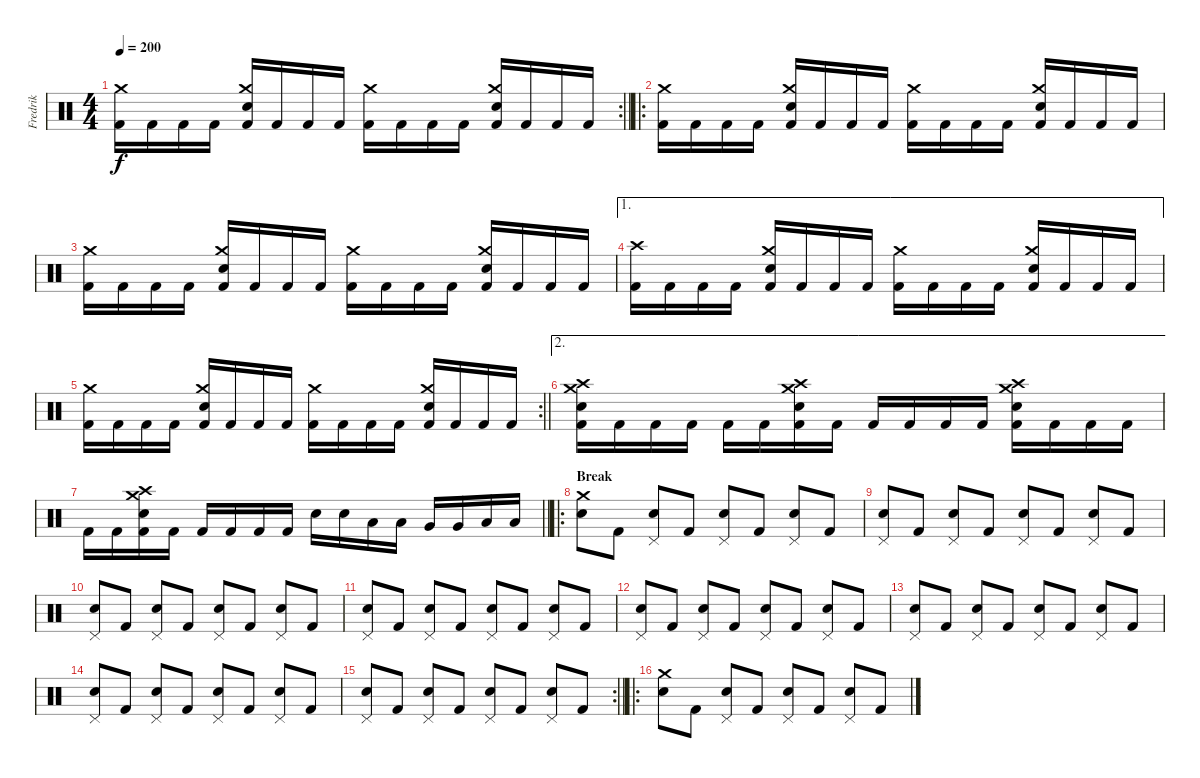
\track ("Fredrik" "Fredrik") {instrument percussion}
\staff {score}
\articulation defaults
\rc 2
\ts (4 4)
\tempo 200
\clef neutral
\barLineRight lightlight
\ks c
("Kick (hit) 2" "Crash medium (hit)").16{dy f} "Kick (hit) 2".16 "Kick (hit) 2".16 "Kick (hit) 2".16 ("Kick (hit) 2" "Snare (hit) 2" "Crash medium (hit)").16 "Kick (hit) 2".16 "Kick (hit) 2".16 "Kick (hit) 2".16 ("Kick (hit) 2" "Crash medium (hit)").16 "Kick (hit) 2".16 "Kick (hit) 2".16 "Kick (hit) 2".16 ("Kick (hit) 2" "Snare (hit) 2" "Crash medium (hit)").16 "Kick (hit) 2".16 "Kick (hit) 2".16 "Kick (hit) 2".16 |
\ro
("Kick (hit) 2" "Crash medium (hit)").16 "Kick (hit) 2".16 "Kick (hit) 2".16 "Kick (hit) 2".16 ("Kick (hit) 2" "Snare (hit) 2" "Crash medium (hit)").16 "Kick (hit) 2".16 "Kick (hit) 2".16 "Kick (hit) 2".16 ("Kick (hit) 2" "Crash medium (hit)").16 "Kick (hit) 2".16 "Kick (hit) 2".16 "Kick (hit) 2".16 ("Kick (hit) 2" "Snare (hit) 2" "Crash medium (hit)").16 "Kick (hit) 2".16 "Kick (hit) 2".16 "Kick (hit) 2".16 |
("Kick (hit) 2" "Crash medium (hit)").16 "Kick (hit) 2".16 "Kick (hit) 2".16 "Kick (hit) 2".16 ("Kick (hit) 2" "Snare (hit) 2" "Crash medium (hit)").16 "Kick (hit) 2".16 "Kick (hit) 2".16 "Kick (hit) 2".16 ("Kick (hit) 2" "Crash medium (hit)").16 "Kick (hit) 2".16 "Kick (hit) 2".16 "Kick (hit) 2".16 ("Kick (hit) 2" "Snare (hit) 2" "Crash medium (hit)").16 "Kick (hit) 2".16 "Kick (hit) 2".16 "Kick (hit) 2".16 |
\ae 1
("Kick (hit) 2" "Crash high (hit)").16 "Kick (hit) 2".16 "Kick (hit) 2".16 "Kick (hit) 2".16 ("Kick (hit) 2" "Snare (hit) 2" "Crash medium (hit)").16 "Kick (hit) 2".16 "Kick (hit) 2".16 "Kick (hit) 2".16 ("Kick (hit) 2" "Crash medium (hit)").16 "Kick (hit) 2".16 "Kick (hit) 2".16 "Kick (hit) 2".16 ("Kick (hit) 2" "Snare (hit) 2" "Crash medium (hit)").16 "Kick (hit) 2".16 "Kick (hit) 2".16 "Kick (hit) 2".16 |
\rc 2
\barLineRight lightlight
("Kick (hit) 2" "Crash medium (hit)").16 "Kick (hit) 2".16 "Kick (hit) 2".16 "Kick (hit) 2".16 ("Kick (hit) 2" "Snare (hit) 2" "Crash medium (hit)").16 "Kick (hit) 2".16 "Kick (hit) 2".16 "Kick (hit) 2".16 ("Kick (hit) 2" "Crash medium (hit)").16 "Kick (hit) 2".16 "Kick (hit) 2".16 "Kick (hit) 2".16 ("Kick (hit) 2" "Snare (hit) 2" "Crash medium (hit)").16 "Kick (hit) 2".16 "Kick (hit) 2".16 "Kick (hit) 2".16 |
\ae 2
("Kick (hit) 2" "Snare (hit) 2" "Crash medium (hit)" "Crash high (hit)").16 "Kick (hit) 2".16 "Kick (hit) 2".16 "Kick (hit) 2".16 "Kick (hit) 2".16 "Kick (hit) 2".16 ("Kick (hit) 2" "Snare (hit) 2" "Crash medium (hit)" "Crash high (hit)").16 "Kick (hit) 2".16 "Kick (hit) 2".16 "Kick (hit) 2".16 "Kick (hit) 2".16 "Kick (hit) 2".16 ("Kick (hit) 2" "Snare (hit) 2" "Crash medium (hit)" "Crash high (hit)").16 "Kick (hit) 2".16 "Kick (hit) 2".16 "Kick (hit) 2".16 |
\barLineRight lightlight "Kick (hit) 2".16 "Kick (hit) 2".16
("Kick (hit) 2" "Snare (hit) 2" "Crash medium (hit)" "Crash high (hit)").16 "Kick (hit) 2".16 "Kick (hit) 2".16 "Kick (hit) 2".16 "Kick (hit) 2".16 "Kick (hit) 2".16 "Snare (hit) 2".16 "Snare (hit) 2".16 "Low Tom (hit)".16 "Low Tom (hit)".16 "Very Low Tom (hit)".16 "Very Low Tom (hit)".16 "Low Floor Tom (hit)".16 "Low Floor Tom (hit)".16 |
\ro
\section ("" "Break")
("Snare (hit) 2" "Crash medium (hit)").8 "Kick (hit) 2".8 ("Snare (hit) 2" "Pedal Hi-Hat (hit)").8 "Kick (hit) 2".8 ("Snare (hit) 2" "Pedal Hi-Hat (hit)").8 "Kick (hit) 2".8 ("Snare (hit) 2" "Pedal Hi-Hat (hit)").8 "Kick (hit) 2".8 |
("Snare (hit) 2" "Pedal Hi-Hat (hit)").8 "Kick (hit) 2".8 ("Snare (hit) 2" "Pedal Hi-Hat (hit)").8 "Kick (hit) 2".8 ("Snare (hit) 2" "Pedal Hi-Hat (hit)").8 "Kick (hit) 2".8 ("Snare (hit) 2" "Pedal Hi-Hat (hit)").8 "Kick (hit) 2".8 |
("Snare (hit) 2" "Pedal Hi-Hat (hit)").8 "Kick (hit) 2".8 ("Snare (hit) 2" "Pedal Hi-Hat (hit)").8 "Kick (hit) 2".8 ("Snare (hit) 2" "Pedal Hi-Hat (hit)").8 "Kick (hit) 2".8 ("Snare (hit) 2" "Pedal Hi-Hat (hit)").8 "Kick (hit) 2".8 |
("Snare (hit) 2" "Pedal Hi-Hat (hit)").8 "Kick (hit) 2".8 ("Snare (hit) 2" "Pedal Hi-Hat (hit)").8 "Kick (hit) 2".8 ("Snare (hit) 2" "Pedal Hi-Hat (hit)").8 "Kick (hit) 2".8 ("Snare (hit) 2" "Pedal Hi-Hat (hit)").8 "Kick (hit) 2".8 |
("Snare (hit) 2" "Pedal Hi-Hat (hit)").8 "Kick (hit) 2".8 ("Snare (hit) 2" "Pedal Hi-Hat (hit)").8 "Kick (hit) 2".8 ("Snare (hit) 2" "Pedal Hi-Hat (hit)").8 "Kick (hit) 2".8 ("Snare (hit) 2" "Pedal Hi-Hat (hit)").8 "Kick (hit) 2".8 |
("Snare (hit) 2" "Pedal Hi-Hat (hit)").8 "Kick (hit) 2".8 ("Snare (hit) 2" "Pedal Hi-Hat (hit)").8 "Kick (hit) 2".8 ("Snare (hit) 2" "Pedal Hi-Hat (hit)").8 "Kick (hit) 2".8 ("Snare (hit) 2" "Pedal Hi-Hat (hit)").8 "Kick (hit) 2".8 |
("Snare (hit) 2" "Pedal Hi-Hat (hit)").8 "Kick (hit) 2".8 ("Snare (hit) 2" "Pedal Hi-Hat (hit)").8 "Kick (hit) 2".8 ("Snare (hit) 2" "Pedal Hi-Hat (hit)").8 "Kick (hit) 2".8 ("Snare (hit) 2" "Pedal Hi-Hat (hit)").8 "Kick (hit) 2".8 |
\rc 2
\barLineRight lightlight
("Snare (hit) 2" "Pedal Hi-Hat (hit)").8 "Kick (hit) 2".8 ("Snare (hit) 2" "Pedal Hi-Hat (hit)").8 "Kick (hit) 2".8 ("Snare (hit) 2" "Pedal Hi-Hat (hit)").8 "Kick (hit) 2".8 ("Snare (hit) 2" "Pedal Hi-Hat (hit)").8 "Kick (hit) 2".8 |
\ro
\section ("" "")
("Snare (hit) 2" "Crash medium (hit)").8 "Kick (hit) 2".8 ("Snare (hit) 2" "Pedal Hi-Hat (hit)").8 "Kick (hit) 2".8 ("Snare (hit) 2" "Pedal Hi-Hat (hit)").8 "Kick (hit) 2".8 ("Snare (hit) 2" "Pedal Hi-Hat (hit)").8 "Kick (hit) 2".8
